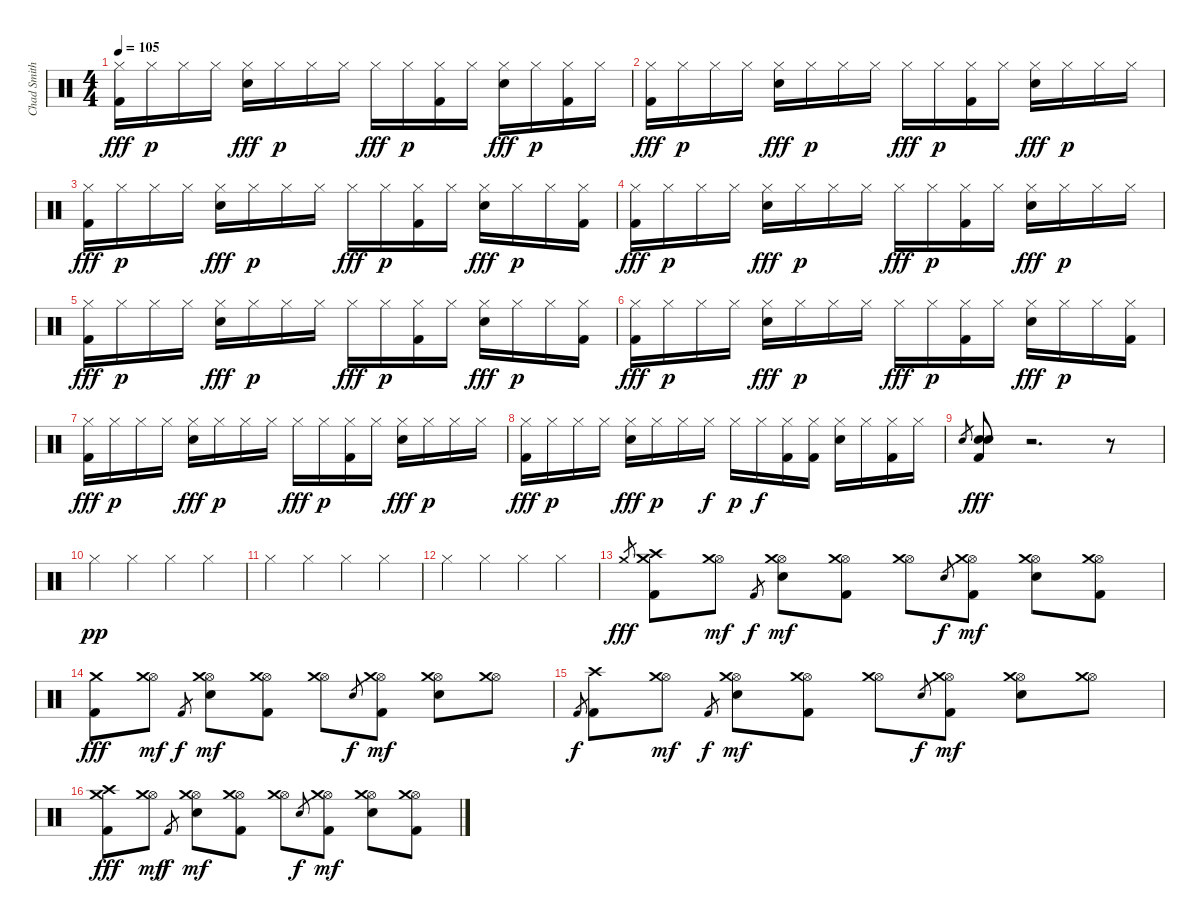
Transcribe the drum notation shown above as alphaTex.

\track ("Chad Smith" "Chad Smith") {instrument percussion}
\staff {score}
\articulation defaults
\ts (4 4)
\tempo 105
\clef neutral
\ks c
("Hi-Hat (closed)" "Kick (hit) 2").16{dy fff} "Hi-Hat (closed)".16{dy p} "Hi-Hat (closed)".16 "Hi-Hat (closed)".16 ("Hi-Hat (closed)" "Electric Snare (hit)").16{dy fff} "Hi-Hat (closed)".16{dy p} "Hi-Hat (closed)".16 "Hi-Hat (closed)".16 "Hi-Hat (closed)".16{dy fff} "Hi-Hat (closed)".16{dy p} ("Hi-Hat (closed)" "Kick (hit) 2").16 "Hi-Hat (closed)".16 ("Hi-Hat (closed)" "Electric Snare (hit)").16{dy fff} "Hi-Hat (closed)".16{dy p} ("Hi-Hat (closed)" "Kick (hit) 2").16 "Hi-Hat (closed)".16 |
("Hi-Hat (closed)" "Kick (hit) 2").16{dy fff} "Hi-Hat (closed)".16{dy p} "Hi-Hat (closed)".16 "Hi-Hat (closed)".16 ("Hi-Hat (closed)" "Electric Snare (hit)").16{dy fff} "Hi-Hat (closed)".16{dy p} "Hi-Hat (closed)".16 "Hi-Hat (closed)".16 "Hi-Hat (closed)".16{dy fff} "Hi-Hat (closed)".16{dy p} ("Hi-Hat (closed)" "Kick (hit) 2").16 "Hi-Hat (closed)".16 ("Hi-Hat (closed)" "Electric Snare (hit)").16{dy fff} "Hi-Hat (closed)".16{dy p} "Hi-Hat (closed)".16 "Hi-Hat (closed)".16 |
("Hi-Hat (closed)" "Kick (hit) 2").16{dy fff} "Hi-Hat (closed)".16{dy p} "Hi-Hat (closed)".16 "Hi-Hat (closed)".16 ("Hi-Hat (closed)" "Electric Snare (hit)").16{dy fff} "Hi-Hat (closed)".16{dy p} "Hi-Hat (closed)".16 "Hi-Hat (closed)".16 "Hi-Hat (closed)".16{dy fff} "Hi-Hat (closed)".16{dy p} ("Hi-Hat (closed)" "Kick (hit) 2").16 "Hi-Hat (closed)".16 ("Hi-Hat (closed)" "Electric Snare (hit)").16{dy fff} "Hi-Hat (closed)".16{dy p} "Hi-Hat (closed)".16 ("Hi-Hat (closed)" "Kick (hit) 2").16 |
("Hi-Hat (closed)" "Kick (hit) 2").16{dy fff} "Hi-Hat (closed)".16{dy p} "Hi-Hat (closed)".16 "Hi-Hat (closed)".16 ("Hi-Hat (closed)" "Electric Snare (hit)").16{dy fff} "Hi-Hat (closed)".16{dy p} "Hi-Hat (closed)".16 "Hi-Hat (closed)".16 "Hi-Hat (closed)".16{dy fff} "Hi-Hat (closed)".16{dy p} ("Hi-Hat (closed)" "Kick (hit) 2").16 "Hi-Hat (closed)".16 ("Hi-Hat (closed)" "Electric Snare (hit)").16{dy fff} "Hi-Hat (closed)".16{dy p} "Hi-Hat (closed)".16 "Hi-Hat (closed)".16 |
("Hi-Hat (closed)" "Kick (hit) 2").16{dy fff} "Hi-Hat (closed)".16{dy p} "Hi-Hat (closed)".16 "Hi-Hat (closed)".16 ("Hi-Hat (closed)" "Electric Snare (hit)").16{dy fff} "Hi-Hat (closed)".16{dy p} "Hi-Hat (closed)".16 "Hi-Hat (closed)".16 "Hi-Hat (closed)".16{dy fff} "Hi-Hat (closed)".16{dy p} ("Hi-Hat (closed)" "Kick (hit) 2").16 "Hi-Hat (closed)".16 ("Hi-Hat (closed)" "Electric Snare (hit)").16{dy fff} "Hi-Hat (closed)".16{dy p} "Hi-Hat (closed)".16 ("Hi-Hat (closed)" "Kick (hit) 2").16 |
("Hi-Hat (closed)" "Kick (hit) 2").16{dy fff} "Hi-Hat (closed)".16{dy p} "Hi-Hat (closed)".16 "Hi-Hat (closed)".16 ("Hi-Hat (closed)" "Electric Snare (hit)").16{dy fff} "Hi-Hat (closed)".16{dy p} "Hi-Hat (closed)".16 "Hi-Hat (closed)".16 "Hi-Hat (closed)".16{dy fff} "Hi-Hat (closed)".16{dy p} ("Hi-Hat (closed)" "Kick (hit) 2").16 "Hi-Hat (closed)".16 ("Hi-Hat (closed)" "Electric Snare (hit)").16{dy fff} "Hi-Hat (closed)".16{dy p} "Hi-Hat (closed)".16 ("Hi-Hat (closed)" "Kick (hit) 2").16 |
("Hi-Hat (closed)" "Kick (hit) 2").16{dy fff} "Hi-Hat (closed)".16{dy p} "Hi-Hat (closed)".16 "Hi-Hat (closed)".16 ("Hi-Hat (closed)" "Electric Snare (hit)").16{dy fff} "Hi-Hat (closed)".16{dy p} "Hi-Hat (closed)".16 "Hi-Hat (closed)".16 "Hi-Hat (closed)".16{dy fff} "Hi-Hat (closed)".16{dy p} ("Hi-Hat (closed)" "Kick (hit) 2").16 "Hi-Hat (closed)".16 ("Hi-Hat (closed)" "Electric Snare (hit)").16{dy fff} "Hi-Hat (closed)".16{dy p} "Hi-Hat (closed)".16 "Hi-Hat (closed)".16 |
("Hi-Hat (closed)" "Kick (hit) 2").16{dy fff} "Hi-Hat (closed)".16{dy p} "Hi-Hat (closed)".16 "Hi-Hat (closed)".16 ("Hi-Hat (closed)" "Electric Snare (hit)").16{dy fff} "Hi-Hat (closed)".16{dy p} "Hi-Hat (closed)".16 "Hi-Hat (closed)".16{dy f} "Hi-Hat (closed)".16{dy p} "Hi-Hat (closed)".16{dy f} ("Hi-Hat (closed)" "Kick (hit) 2").16 ("Hi-Hat (closed)" "Kick (hit) 2").16 ("Hi-Hat (closed)" "Electric Snare (hit)").16 "Hi-Hat (closed)".16 ("Hi-Hat (closed)" "Kick (hit) 2").16 "Hi-Hat (closed)".16 |
"Electric Snare (hit)".8{gr} ("Kick (hit) 2" "Electric Snare (hit)" "Electric Snare (hit)").8{dy fff} r.2{d} r.8 |
"Hi-Hat (closed)".4{dy pp} "Hi-Hat (closed)".4 "Hi-Hat (closed)".4 "Hi-Hat (closed)".4 |
"Hi-Hat (closed)".4 "Hi-Hat (closed)".4 "Hi-Hat (closed)".4 "Hi-Hat (closed)".4 |
"Hi-Hat (closed)".4 "Hi-Hat (closed)".4 "Hi-Hat (closed)".4 "Hi-Hat (closed)".4 |
"Crash medium (hit)".8{gr dy fff} ("Kick (hit) 2" "Crash medium (hit)" "Crash high (hit)").8 ("Hi-Hat (open)" "Crash medium (hit)").8{dy mf} "Kick (hit) 2".8{gr dy f} ("Hi-Hat (open)" "Electric Snare (hit)" "Crash medium (hit)").8{dy mf} ("Hi-Hat (open)" "Kick (hit) 2" "Crash medium (hit)").8 ("Hi-Hat (open)" "Crash medium (hit)").8 "Electric Snare (hit)".8{gr dy f} ("Hi-Hat (open)" "Kick (hit) 2" "Crash medium (hit)").8{dy mf} ("Hi-Hat (open)" "Electric Snare (hit)" "Crash medium (hit)").8 ("Hi-Hat (open)" "Kick (hit) 2" "Crash medium (hit)").8 |
("Kick (hit) 2" "Crash medium (hit)").8{dy fff} ("Hi-Hat (open)" "Crash medium (hit)").8{dy mf} "Kick (hit) 2".8{gr dy f} ("Hi-Hat (open)" "Electric Snare (hit)" "Crash medium (hit)").8{dy mf} ("Hi-Hat (open)" "Kick (hit) 2" "Crash medium (hit)").8 ("Hi-Hat (open)" "Crash medium (hit)").8 "Electric Snare (hit)".8{gr dy f} ("Hi-Hat (open)" "Kick (hit) 2" "Crash medium (hit)").8{dy mf} ("Hi-Hat (open)" "Electric Snare (hit)" "Crash medium (hit)").8 ("Hi-Hat (open)" "Crash medium (hit)").8 |
"Kick (hit) 2".8{gr dy f} ("Kick (hit) 2" "Crash high (hit)").8 ("Hi-Hat (open)" "Crash medium (hit)").8{dy mf} "Kick (hit) 2".8{gr dy f} ("Hi-Hat (open)" "Electric Snare (hit)" "Crash medium (hit)").8{dy mf} ("Hi-Hat (open)" "Kick (hit) 2" "Crash medium (hit)").8 ("Hi-Hat (open)" "Crash medium (hit)").8 "Electric Snare (hit)".8{gr dy f} ("Hi-Hat (open)" "Kick (hit) 2" "Crash medium (hit)").8{dy mf} ("Hi-Hat (open)" "Electric Snare (hit)" "Crash medium (hit)").8 ("Hi-Hat (open)" "Crash medium (hit)").8 |
("Kick (hit) 2" "Crash medium (hit)" "Crash high (hit)").8{dy fff} ("Hi-Hat (open)" "Crash medium (hit)").8{dy mf} "Kick (hit) 2".8{gr dy f} ("Hi-Hat (open)" "Electric Snare (hit)" "Crash medium (hit)").8{dy mf} ("Hi-Hat (open)" "Kick (hit) 2" "Crash medium (hit)").8 ("Hi-Hat (open)" "Crash medium (hit)").8 "Electric Snare (hit)".8{gr dy f} ("Hi-Hat (open)" "Kick (hit) 2" "Crash medium (hit)").8{dy mf} ("Hi-Hat (open)" "Electric Snare (hit)" "Crash medium (hit)").8 ("Hi-Hat (open)" "Kick (hit) 2" "Crash medium (hit)").8
